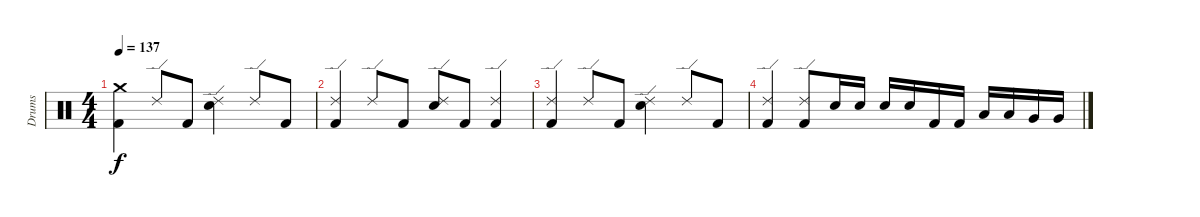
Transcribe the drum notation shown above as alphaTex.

\track ("Drums" "Drums") {instrument percussion}
\staff {score}
\articulation defaults
\ts (4 4)
\tempo 137
\clef neutral
\ks c
("Kick (hit) 2" "Crash medium (hit)").4{dy f volume 4} "Ride (edge) 2".8{volume 4} "Kick (hit) 2".8{volume 4} ("Ride (edge) 2" "Electric Snare (hit)").4{volume 4} "Ride (edge) 2".8{volume 3} "Kick (hit) 2".8{volume 3} |
("Ride (edge) 2" "Kick (hit) 2").4{volume 3} "Ride (edge) 2".8{volume 3} "Kick (hit) 2".8{volume 3} ("Ride (edge) 2" "Electric Snare (hit)").8{volume 2} "Kick (hit) 2".8{volume 2} ("Ride (edge) 2" "Kick (hit) 2").4{volume 2} |
("Ride (edge) 2" "Kick (hit) 2").4{volume 2} "Ride (edge) 2".8{volume 2} "Kick (hit) 2".8{volume 2} ("Ride (edge) 2" "Electric Snare (hit)").4{volume 2} "Ride (edge) 2".8{volume 1} "Kick (hit) 2".8{volume 1} |
("Ride (edge) 2" "Kick (hit) 2").4{volume 1} ("Ride (edge) 2" "Kick (hit) 2").8{volume 1} "Electric Snare (hit)".16{volume 1} "Electric Snare (hit)".16 "Electric Snare (hit)".16{volume 0} "Electric Snare (hit)".16 "Kick (hit) 2".16{volume 0} "Kick (hit) 2".16 "Low Tom (hit)".16{volume 0} "Low Tom (hit)".16 "Very Low Tom (hit)".16{volume 0} "Very Low Tom (hit)".16
